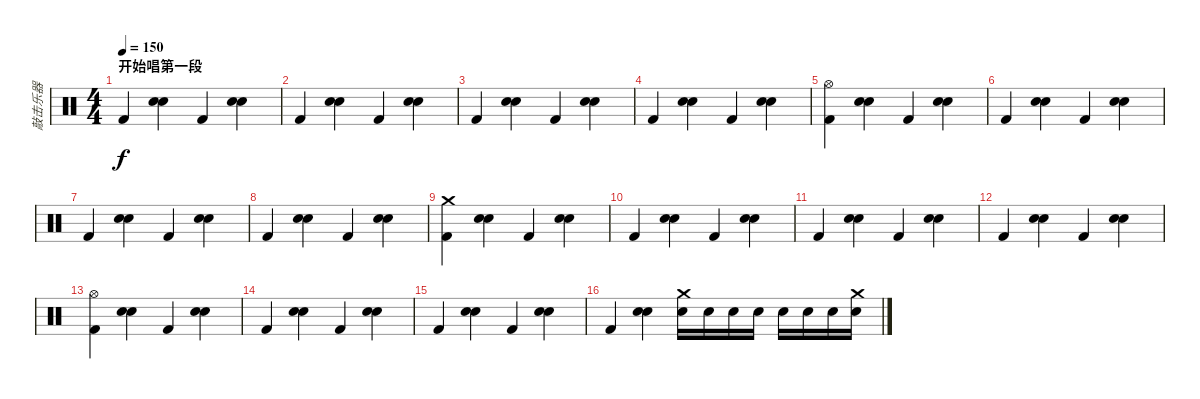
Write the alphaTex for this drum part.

\track ("敲击乐器" "敲击乐器") {instrument percussion}
\staff {score}
\articulation defaults
\ts (4 4)
\section ("" "开始唱第一段")
\tempo 150
\clef neutral
\ks c "Kick (hit) 2".4{dy f}
("Snare (hit) 2" "Electric Snare (hit)").4 "Kick (hit) 2".4 ("Snare (hit) 2" "Electric Snare (hit)").4 |
"Kick (hit) 2".4 ("Snare (hit) 2" "Electric Snare (hit)").4 "Kick (hit) 2".4 ("Snare (hit) 2" "Electric Snare (hit)").4 |
"Kick (hit) 2".4 ("Snare (hit) 2" "Electric Snare (hit)").4 "Kick (hit) 2".4 ("Snare (hit) 2" "Electric Snare (hit)").4 |
"Kick (hit) 2".4 ("Snare (hit) 2" "Electric Snare (hit)").4 "Kick (hit) 2".4 ("Snare (hit) 2" "Electric Snare (hit)").4 |
("Kick (hit) 2" "Hi-Hat (open)").4 ("Snare (hit) 2" "Electric Snare (hit)").4 "Kick (hit) 2".4 ("Snare (hit) 2" "Electric Snare (hit)").4 |
"Kick (hit) 2".4 ("Snare (hit) 2" "Electric Snare (hit)").4 "Kick (hit) 2".4 ("Snare (hit) 2" "Electric Snare (hit)").4 |
"Kick (hit) 2".4 ("Snare (hit) 2" "Electric Snare (hit)").4 "Kick (hit) 2".4 ("Snare (hit) 2" "Electric Snare (hit)").4 |
"Kick (hit) 2".4 ("Snare (hit) 2" "Electric Snare (hit)").4 "Kick (hit) 2".4 ("Snare (hit) 2" "Electric Snare (hit)").4 |
("Kick (hit) 2" "Crash medium (hit)").4 ("Snare (hit) 2" "Electric Snare (hit)").4 "Kick (hit) 2".4 ("Snare (hit) 2" "Electric Snare (hit)").4 |
"Kick (hit) 2".4 ("Snare (hit) 2" "Electric Snare (hit)").4 "Kick (hit) 2".4 ("Snare (hit) 2" "Electric Snare (hit)").4 |
"Kick (hit) 2".4 ("Snare (hit) 2" "Electric Snare (hit)").4 "Kick (hit) 2".4 ("Snare (hit) 2" "Electric Snare (hit)").4 |
"Kick (hit) 2".4 ("Snare (hit) 2" "Electric Snare (hit)").4 "Kick (hit) 2".4 ("Snare (hit) 2" "Electric Snare (hit)").4 |
("Kick (hit) 2" "Hi-Hat (open)").4 ("Snare (hit) 2" "Electric Snare (hit)").4 "Kick (hit) 2".4 ("Snare (hit) 2" "Electric Snare (hit)").4 |
"Kick (hit) 2".4 ("Snare (hit) 2" "Electric Snare (hit)").4 "Kick (hit) 2".4 ("Snare (hit) 2" "Electric Snare (hit)").4 |
"Kick (hit) 2".4 ("Snare (hit) 2" "Electric Snare (hit)").4 "Kick (hit) 2".4 ("Snare (hit) 2" "Electric Snare (hit)").4 |
"Kick (hit) 2".4 ("Snare (hit) 2" "Electric Snare (hit)").4 ("Electric Snare (hit)" "Crash medium (hit)").16 "Electric Snare (hit)".16 "Electric Snare (hit)".16 "Electric Snare (hit)".16 "Electric Snare (hit)".16 "Electric Snare (hit)".16 "Electric Snare (hit)".16 ("Electric Snare (hit)" "Crash medium (hit)").16
